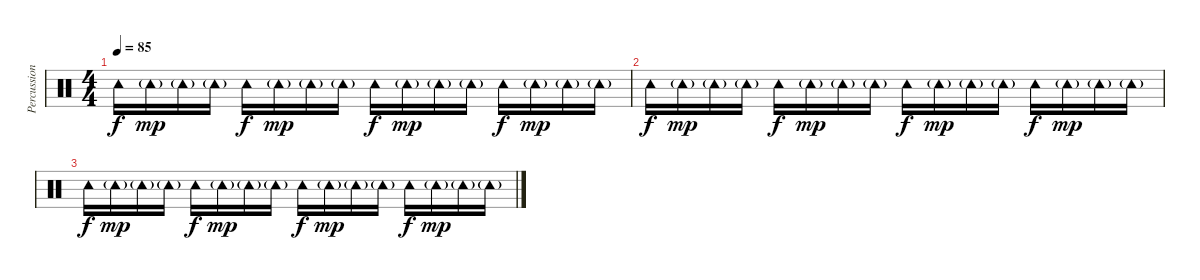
\track ("Percussions" "Percussion") {instrument percussion}
\staff {score}
\articulation defaults
\ts (4 4)
\tempo 85
\clef neutral
\ks c "Tambourine (hit)".16{dy f} "Tambourine (hit)"{g}.16{dy mp} "Tambourine (hit)"{g}.16 "Tambourine (hit)"{g}.16 "Tambourine (hit)".16{dy f} "Tambourine (hit)"{g}.16{dy mp} "Tambourine (hit)"{g}.16 "Tambourine (hit)"{g}.16 "Tambourine (hit)".16{dy f} "Tambourine (hit)"{g}.16{dy mp} "Tambourine (hit)"{g}.16 "Tambourine (hit)"{g}.16 "Tambourine (hit)".16{dy f} "Tambourine (hit)"{g}.16{dy mp} "Tambourine (hit)"{g}.16 "Tambourine (hit)"{g}.16
|
"Tambourine (hit)".16{dy f} "Tambourine (hit)"{g}.16{dy mp} "Tambourine (hit)"{g}.16 "Tambourine (hit)"{g}.16 "Tambourine (hit)".16{dy f} "Tambourine (hit)"{g}.16{dy mp} "Tambourine (hit)"{g}.16 "Tambourine (hit)"{g}.16 "Tambourine (hit)".16{dy f} "Tambourine (hit)"{g}.16{dy mp} "Tambourine (hit)"{g}.16 "Tambourine (hit)"{g}.16 "Tambourine (hit)".16{dy f} "Tambourine (hit)"{g}.16{dy mp} "Tambourine (hit)"{g}.16 "Tambourine (hit)"{g}.16 |
"Tambourine (hit)".16{dy f} "Tambourine (hit)"{g}.16{dy mp} "Tambourine (hit)"{g}.16 "Tambourine (hit)"{g}.16 "Tambourine (hit)".16{dy f} "Tambourine (hit)"{g}.16{dy mp} "Tambourine (hit)"{g}.16 "Tambourine (hit)"{g}.16 "Tambourine (hit)".16{dy f} "Tambourine (hit)"{g}.16{dy mp} "Tambourine (hit)"{g}.16 "Tambourine (hit)"{g}.16 "Tambourine (hit)".16{dy f} "Tambourine (hit)"{g}.16{dy mp} "Tambourine (hit)"{g}.16 "Tambourine (hit)"{g}.16
